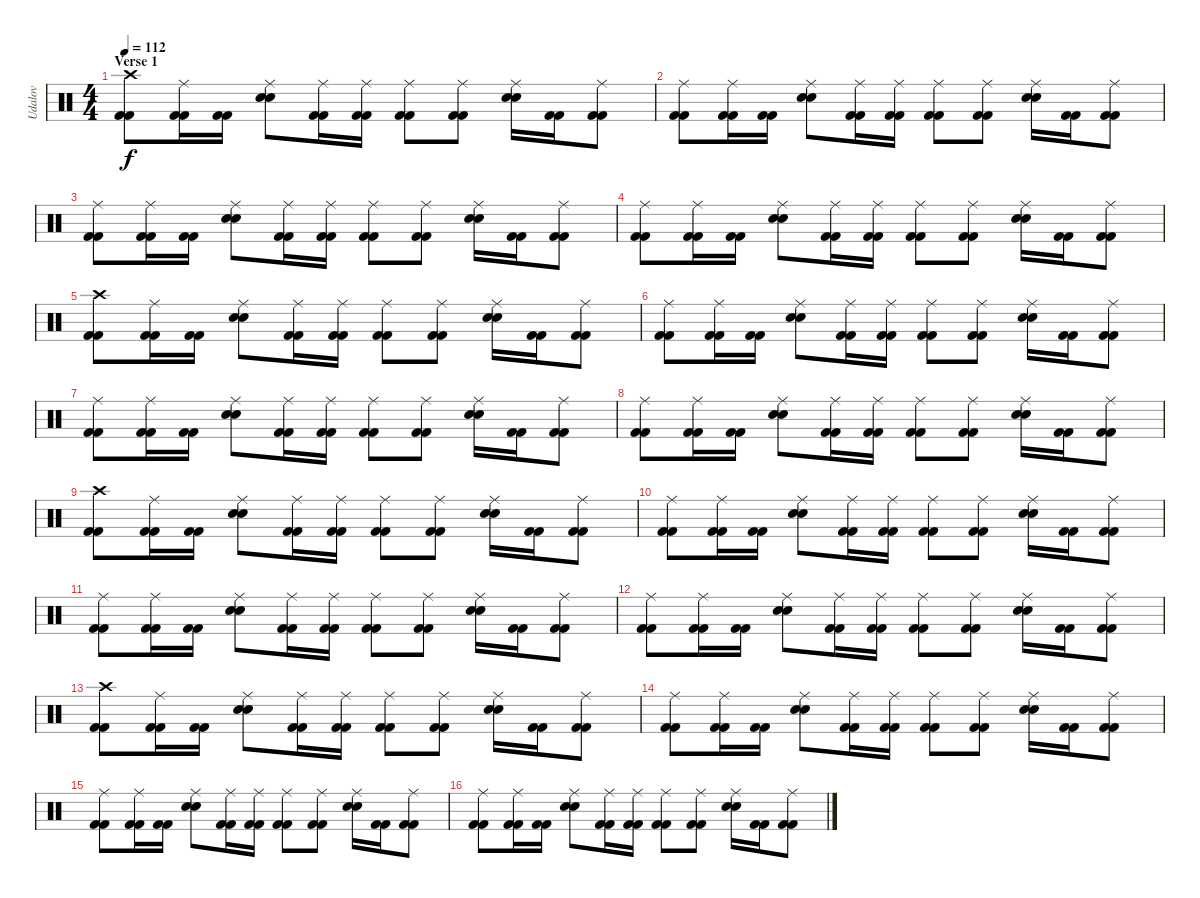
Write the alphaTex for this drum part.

\track ("Udalov" "Udalov") {instrument percussion}
\staff {score}
\articulation defaults
\ts (4 4)
\section ("" "Verse 1")
\tempo 112
\clef neutral
\ks c
("Crash high (hit)" "Kick (hit) 2" "Kick (hit) 2").8{dy f} ("Ride (middle)" "Kick (hit) 2" "Kick (hit) 2").16 ("Kick (hit) 2" "Kick (hit) 2").16 ("Ride (middle)" "Electric Snare (hit)" "Electric Snare (hit)").8 ("Ride (middle)" "Kick (hit) 2" "Kick (hit) 2").16 ("Ride (middle)" "Kick (hit) 2" "Kick (hit) 2").16 ("Ride (middle)" "Kick (hit) 2" "Kick (hit) 2").8 ("Ride (middle)" "Kick (hit) 2" "Kick (hit) 2").8 ("Ride (middle)" "Electric Snare (hit)" "Electric Snare (hit)").16 ("Kick (hit) 2" "Kick (hit) 2").16 ("Ride (middle)" "Kick (hit) 2" "Kick (hit) 2").8 |
("Ride (middle)" "Kick (hit) 2" "Kick (hit) 2").8 ("Ride (middle)" "Kick (hit) 2" "Kick (hit) 2").16 ("Kick (hit) 2" "Kick (hit) 2").16 ("Ride (middle)" "Electric Snare (hit)" "Electric Snare (hit)").8 ("Ride (middle)" "Kick (hit) 2" "Kick (hit) 2").16 ("Ride (middle)" "Kick (hit) 2" "Kick (hit) 2").16 ("Ride (middle)" "Kick (hit) 2" "Kick (hit) 2").8 ("Ride (middle)" "Kick (hit) 2" "Kick (hit) 2").8 ("Ride (middle)" "Electric Snare (hit)" "Electric Snare (hit)").16 ("Kick (hit) 2" "Kick (hit) 2").16 ("Ride (middle)" "Kick (hit) 2" "Kick (hit) 2").8 |
("Ride (middle)" "Kick (hit) 2" "Kick (hit) 2").8 ("Ride (middle)" "Kick (hit) 2" "Kick (hit) 2").16 ("Kick (hit) 2" "Kick (hit) 2").16 ("Ride (middle)" "Electric Snare (hit)" "Electric Snare (hit)").8 ("Ride (middle)" "Kick (hit) 2" "Kick (hit) 2").16 ("Ride (middle)" "Kick (hit) 2" "Kick (hit) 2").16 ("Ride (middle)" "Kick (hit) 2" "Kick (hit) 2").8 ("Ride (middle)" "Kick (hit) 2" "Kick (hit) 2").8 ("Ride (middle)" "Electric Snare (hit)" "Electric Snare (hit)").16 ("Kick (hit) 2" "Kick (hit) 2").16 ("Ride (middle)" "Kick (hit) 2" "Kick (hit) 2").8 |
("Ride (middle)" "Kick (hit) 2" "Kick (hit) 2").8 ("Ride (middle)" "Kick (hit) 2" "Kick (hit) 2").16 ("Kick (hit) 2" "Kick (hit) 2").16 ("Ride (middle)" "Electric Snare (hit)" "Electric Snare (hit)").8 ("Ride (middle)" "Kick (hit) 2" "Kick (hit) 2").16 ("Ride (middle)" "Kick (hit) 2" "Kick (hit) 2").16 ("Ride (middle)" "Kick (hit) 2" "Kick (hit) 2").8 ("Ride (middle)" "Kick (hit) 2" "Kick (hit) 2").8 ("Ride (middle)" "Electric Snare (hit)" "Electric Snare (hit)").16 ("Kick (hit) 2" "Kick (hit) 2").16 ("Ride (middle)" "Kick (hit) 2" "Kick (hit) 2").8 |
("Crash high (hit)" "Kick (hit) 2" "Kick (hit) 2").8 ("Ride (middle)" "Kick (hit) 2" "Kick (hit) 2").16 ("Kick (hit) 2" "Kick (hit) 2").16 ("Ride (middle)" "Electric Snare (hit)" "Electric Snare (hit)").8 ("Ride (middle)" "Kick (hit) 2" "Kick (hit) 2").16 ("Ride (middle)" "Kick (hit) 2" "Kick (hit) 2").16 ("Ride (middle)" "Kick (hit) 2" "Kick (hit) 2").8 ("Ride (middle)" "Kick (hit) 2" "Kick (hit) 2").8 ("Ride (middle)" "Electric Snare (hit)" "Electric Snare (hit)").16 ("Kick (hit) 2" "Kick (hit) 2").16 ("Ride (middle)" "Kick (hit) 2" "Kick (hit) 2").8 |
("Ride (middle)" "Kick (hit) 2" "Kick (hit) 2").8 ("Ride (middle)" "Kick (hit) 2" "Kick (hit) 2").16 ("Kick (hit) 2" "Kick (hit) 2").16 ("Ride (middle)" "Electric Snare (hit)" "Electric Snare (hit)").8 ("Ride (middle)" "Kick (hit) 2" "Kick (hit) 2").16 ("Ride (middle)" "Kick (hit) 2" "Kick (hit) 2").16 ("Ride (middle)" "Kick (hit) 2" "Kick (hit) 2").8 ("Ride (middle)" "Kick (hit) 2" "Kick (hit) 2").8 ("Ride (middle)" "Electric Snare (hit)" "Electric Snare (hit)").16 ("Kick (hit) 2" "Kick (hit) 2").16 ("Ride (middle)" "Kick (hit) 2" "Kick (hit) 2").8 |
("Ride (middle)" "Kick (hit) 2" "Kick (hit) 2").8 ("Ride (middle)" "Kick (hit) 2" "Kick (hit) 2").16 ("Kick (hit) 2" "Kick (hit) 2").16 ("Ride (middle)" "Electric Snare (hit)" "Electric Snare (hit)").8 ("Ride (middle)" "Kick (hit) 2" "Kick (hit) 2").16 ("Ride (middle)" "Kick (hit) 2" "Kick (hit) 2").16 ("Ride (middle)" "Kick (hit) 2" "Kick (hit) 2").8 ("Ride (middle)" "Kick (hit) 2" "Kick (hit) 2").8 ("Ride (middle)" "Electric Snare (hit)" "Electric Snare (hit)").16 ("Kick (hit) 2" "Kick (hit) 2").16 ("Ride (middle)" "Kick (hit) 2" "Kick (hit) 2").8 |
("Ride (middle)" "Kick (hit) 2" "Kick (hit) 2").8 ("Ride (middle)" "Kick (hit) 2" "Kick (hit) 2").16 ("Kick (hit) 2" "Kick (hit) 2").16 ("Ride (middle)" "Electric Snare (hit)" "Electric Snare (hit)").8 ("Ride (middle)" "Kick (hit) 2" "Kick (hit) 2").16 ("Ride (middle)" "Kick (hit) 2" "Kick (hit) 2").16 ("Ride (middle)" "Kick (hit) 2" "Kick (hit) 2").8 ("Ride (middle)" "Kick (hit) 2" "Kick (hit) 2").8 ("Ride (middle)" "Electric Snare (hit)" "Electric Snare (hit)").16 ("Kick (hit) 2" "Kick (hit) 2").16 ("Ride (middle)" "Kick (hit) 2" "Kick (hit) 2").8 |
("Crash high (hit)" "Kick (hit) 2" "Kick (hit) 2").8 ("Ride (middle)" "Kick (hit) 2" "Kick (hit) 2").16 ("Kick (hit) 2" "Kick (hit) 2").16 ("Ride (middle)" "Electric Snare (hit)" "Electric Snare (hit)").8 ("Ride (middle)" "Kick (hit) 2" "Kick (hit) 2").16 ("Ride (middle)" "Kick (hit) 2" "Kick (hit) 2").16 ("Ride (middle)" "Kick (hit) 2" "Kick (hit) 2").8 ("Ride (middle)" "Kick (hit) 2" "Kick (hit) 2").8 ("Ride (middle)" "Electric Snare (hit)" "Electric Snare (hit)").16 ("Kick (hit) 2" "Kick (hit) 2").16 ("Ride (middle)" "Kick (hit) 2" "Kick (hit) 2").8 |
("Ride (middle)" "Kick (hit) 2" "Kick (hit) 2").8 ("Ride (middle)" "Kick (hit) 2" "Kick (hit) 2").16 ("Kick (hit) 2" "Kick (hit) 2").16 ("Ride (middle)" "Electric Snare (hit)" "Electric Snare (hit)").8 ("Ride (middle)" "Kick (hit) 2" "Kick (hit) 2").16 ("Ride (middle)" "Kick (hit) 2" "Kick (hit) 2").16 ("Ride (middle)" "Kick (hit) 2" "Kick (hit) 2").8 ("Ride (middle)" "Kick (hit) 2" "Kick (hit) 2").8 ("Ride (middle)" "Electric Snare (hit)" "Electric Snare (hit)").16 ("Kick (hit) 2" "Kick (hit) 2").16 ("Ride (middle)" "Kick (hit) 2" "Kick (hit) 2").8 |
("Ride (middle)" "Kick (hit) 2" "Kick (hit) 2").8 ("Ride (middle)" "Kick (hit) 2" "Kick (hit) 2").16 ("Kick (hit) 2" "Kick (hit) 2").16 ("Ride (middle)" "Electric Snare (hit)" "Electric Snare (hit)").8 ("Ride (middle)" "Kick (hit) 2" "Kick (hit) 2").16 ("Ride (middle)" "Kick (hit) 2" "Kick (hit) 2").16 ("Ride (middle)" "Kick (hit) 2" "Kick (hit) 2").8 ("Ride (middle)" "Kick (hit) 2" "Kick (hit) 2").8 ("Ride (middle)" "Electric Snare (hit)" "Electric Snare (hit)").16 ("Kick (hit) 2" "Kick (hit) 2").16 ("Ride (middle)" "Kick (hit) 2" "Kick (hit) 2").8 |
("Ride (middle)" "Kick (hit) 2" "Kick (hit) 2").8 ("Ride (middle)" "Kick (hit) 2" "Kick (hit) 2").16 ("Kick (hit) 2" "Kick (hit) 2").16 ("Ride (middle)" "Electric Snare (hit)" "Electric Snare (hit)").8 ("Ride (middle)" "Kick (hit) 2" "Kick (hit) 2").16 ("Ride (middle)" "Kick (hit) 2" "Kick (hit) 2").16 ("Ride (middle)" "Kick (hit) 2" "Kick (hit) 2").8 ("Ride (middle)" "Kick (hit) 2" "Kick (hit) 2").8 ("Ride (middle)" "Electric Snare (hit)" "Electric Snare (hit)").16 ("Kick (hit) 2" "Kick (hit) 2").16 ("Ride (middle)" "Kick (hit) 2" "Kick (hit) 2").8 |
("Crash high (hit)" "Kick (hit) 2" "Kick (hit) 2").8 ("Ride (middle)" "Kick (hit) 2" "Kick (hit) 2").16 ("Kick (hit) 2" "Kick (hit) 2").16 ("Ride (middle)" "Electric Snare (hit)" "Electric Snare (hit)").8 ("Ride (middle)" "Kick (hit) 2" "Kick (hit) 2").16 ("Ride (middle)" "Kick (hit) 2" "Kick (hit) 2").16 ("Ride (middle)" "Kick (hit) 2" "Kick (hit) 2").8 ("Ride (middle)" "Kick (hit) 2" "Kick (hit) 2").8 ("Ride (middle)" "Electric Snare (hit)" "Electric Snare (hit)").16 ("Kick (hit) 2" "Kick (hit) 2").16 ("Ride (middle)" "Kick (hit) 2" "Kick (hit) 2").8 |
("Ride (middle)" "Kick (hit) 2" "Kick (hit) 2").8 ("Ride (middle)" "Kick (hit) 2" "Kick (hit) 2").16 ("Kick (hit) 2" "Kick (hit) 2").16 ("Ride (middle)" "Electric Snare (hit)" "Electric Snare (hit)").8 ("Ride (middle)" "Kick (hit) 2" "Kick (hit) 2").16 ("Ride (middle)" "Kick (hit) 2" "Kick (hit) 2").16 ("Ride (middle)" "Kick (hit) 2" "Kick (hit) 2").8 ("Ride (middle)" "Kick (hit) 2" "Kick (hit) 2").8 ("Ride (middle)" "Electric Snare (hit)" "Electric Snare (hit)").16 ("Kick (hit) 2" "Kick (hit) 2").16 ("Ride (middle)" "Kick (hit) 2" "Kick (hit) 2").8 |
("Ride (middle)" "Kick (hit) 2" "Kick (hit) 2").8 ("Ride (middle)" "Kick (hit) 2" "Kick (hit) 2").16 ("Kick (hit) 2" "Kick (hit) 2").16 ("Ride (middle)" "Electric Snare (hit)" "Electric Snare (hit)").8 ("Ride (middle)" "Kick (hit) 2" "Kick (hit) 2").16 ("Ride (middle)" "Kick (hit) 2" "Kick (hit) 2").16 ("Ride (middle)" "Kick (hit) 2" "Kick (hit) 2").8 ("Ride (middle)" "Kick (hit) 2" "Kick (hit) 2").8 ("Ride (middle)" "Electric Snare (hit)" "Electric Snare (hit)").16 ("Kick (hit) 2" "Kick (hit) 2").16 ("Ride (middle)" "Kick (hit) 2" "Kick (hit) 2").8 |
("Ride (middle)" "Kick (hit) 2" "Kick (hit) 2").8 ("Ride (middle)" "Kick (hit) 2" "Kick (hit) 2").16 ("Kick (hit) 2" "Kick (hit) 2").16 ("Ride (middle)" "Electric Snare (hit)" "Electric Snare (hit)").8 ("Ride (middle)" "Kick (hit) 2" "Kick (hit) 2").16 ("Ride (middle)" "Kick (hit) 2" "Kick (hit) 2").16 ("Ride (middle)" "Kick (hit) 2" "Kick (hit) 2").8 ("Ride (middle)" "Kick (hit) 2" "Kick (hit) 2").8 ("Ride (middle)" "Electric Snare (hit)" "Electric Snare (hit)").16 ("Kick (hit) 2" "Kick (hit) 2").16 ("Ride (middle)" "Kick (hit) 2" "Kick (hit) 2").8
